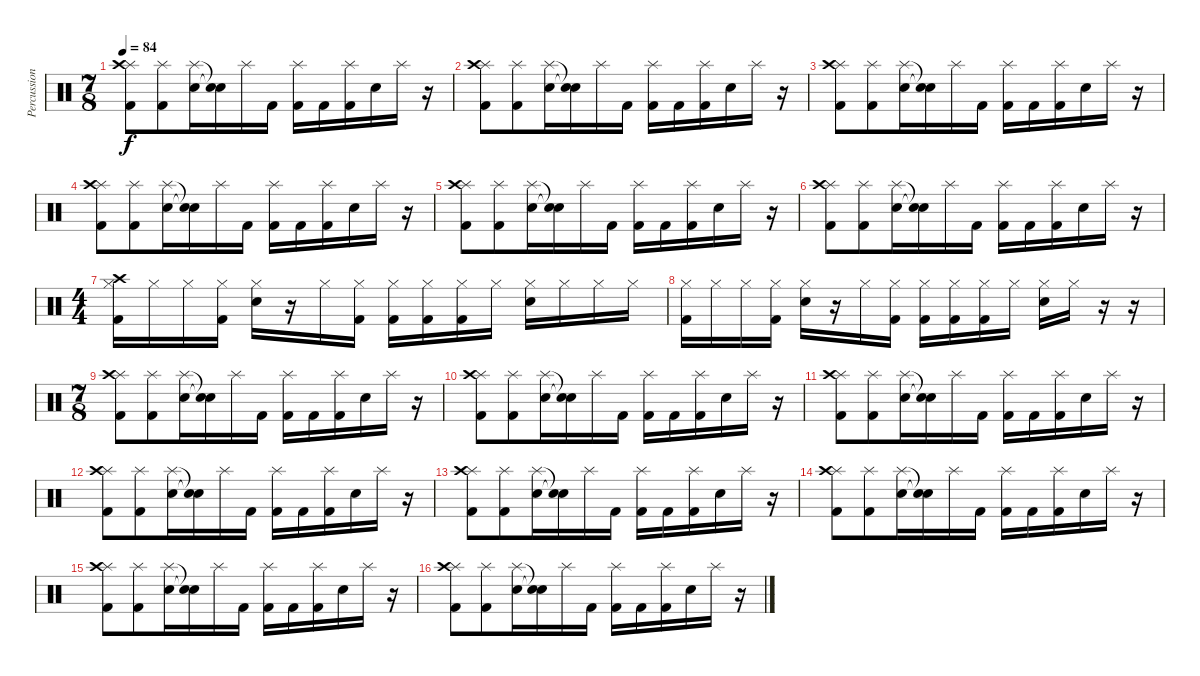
\track ("Percussions" "Percussion") {instrument percussion}
\staff {score}
\articulation defaults
\ts (7 8)
\tempo 84
\clef neutral
\ks c
("Splash (hit)" "Kick (hit) 2" "Crash high (hit)").8{dy f} ("Kick (hit) 2" "Splash (hit)").8 ("Electric Snare (hit)" "Splash (hit)").16 ("Snare (hit)"{t} "Snare (hit)"{t}).16 "Splash (hit)".16 "Kick (hit) 2".16 ("Kick (hit) 2" "Splash (hit)").16 "Kick (hit) 2".16 ("Kick (hit) 2" "Splash (hit)").16 "Electric Snare (hit)".16 "Splash (hit)".16 r.16 |
("Splash (hit)" "Kick (hit) 2" "Crash high (hit)").8 ("Kick (hit) 2" "Splash (hit)").8 ("Electric Snare (hit)" "Splash (hit)").16 ("Snare (hit)"{t} "Snare (hit)"{t}).16 "Splash (hit)".16 "Kick (hit) 2".16 ("Kick (hit) 2" "Splash (hit)").16 "Kick (hit) 2".16 ("Kick (hit) 2" "Splash (hit)").16 "Electric Snare (hit)".16 "Splash (hit)".16 r.16 |
("Splash (hit)" "Kick (hit) 2" "Crash high (hit)").8 ("Kick (hit) 2" "Splash (hit)").8 ("Electric Snare (hit)" "Splash (hit)").16 ("Snare (hit)"{t} "Snare (hit)"{t}).16 "Splash (hit)".16 "Kick (hit) 2".16 ("Kick (hit) 2" "Splash (hit)").16 "Kick (hit) 2".16 ("Kick (hit) 2" "Splash (hit)").16 "Electric Snare (hit)".16 "Splash (hit)".16 r.16 |
("Splash (hit)" "Kick (hit) 2" "Crash high (hit)").8 ("Kick (hit) 2" "Splash (hit)").8 ("Electric Snare (hit)" "Splash (hit)").16 ("Snare (hit)"{t} "Snare (hit)"{t}).16 "Splash (hit)".16 "Kick (hit) 2".16 ("Kick (hit) 2" "Splash (hit)").16 "Kick (hit) 2".16 ("Kick (hit) 2" "Splash (hit)").16 "Electric Snare (hit)".16 "Splash (hit)".16 r.16 |
("Splash (hit)" "Kick (hit) 2" "Crash high (hit)").8 ("Kick (hit) 2" "Splash (hit)").8 ("Electric Snare (hit)" "Splash (hit)").16 ("Snare (hit)"{t} "Snare (hit)"{t}).16 "Splash (hit)".16 "Kick (hit) 2".16 ("Kick (hit) 2" "Splash (hit)").16 "Kick (hit) 2".16 ("Kick (hit) 2" "Splash (hit)").16 "Electric Snare (hit)".16 "Splash (hit)".16 r.16 |
("Splash (hit)" "Kick (hit) 2" "Crash high (hit)").8 ("Kick (hit) 2" "Splash (hit)").8 ("Electric Snare (hit)" "Splash (hit)").16 ("Snare (hit)"{t} "Snare (hit)"{t}).16 "Splash (hit)".16 "Kick (hit) 2".16 ("Kick (hit) 2" "Splash (hit)").16 "Kick (hit) 2".16 ("Kick (hit) 2" "Splash (hit)").16 "Electric Snare (hit)".16 "Splash (hit)".16 r.16 |
\ts (4 4)
("Kick (hit) 2" "Hi-Hat (closed)" "Crash high (hit)").16 "Hi-Hat (closed)".16 "Hi-Hat (closed)".16 ("Kick (hit) 2" "Hi-Hat (closed)").16 ("Electric Snare (hit)" "Hi-Hat (closed)").16 r.16 "Hi-Hat (closed)".16 ("Kick (hit) 2" "Hi-Hat (closed)").16 ("Kick (hit) 2" "Hi-Hat (closed)").16 ("Kick (hit) 2" "Hi-Hat (closed)").16 ("Kick (hit) 2" "Hi-Hat (closed)").16 "Hi-Hat (closed)".16 ("Electric Snare (hit)" "Hi-Hat (closed)").16 "Hi-Hat (closed)".16 "Hi-Hat (closed)".16 "Hi-Hat (closed)".16 |
("Kick (hit) 2" "Hi-Hat (closed)").16 "Hi-Hat (closed)".16 "Hi-Hat (closed)".16 ("Kick (hit) 2" "Hi-Hat (closed)").16 ("Electric Snare (hit)" "Hi-Hat (closed)").16 r.16 "Hi-Hat (closed)".16 ("Kick (hit) 2" "Hi-Hat (closed)").16 ("Kick (hit) 2" "Hi-Hat (closed)").16 ("Kick (hit) 2" "Hi-Hat (closed)").16 ("Kick (hit) 2" "Hi-Hat (closed)").16 "Hi-Hat (closed)".16 ("Electric Snare (hit)" "Hi-Hat (closed)").16 "Hi-Hat (closed)".16 r.16 r.16 |
\ts (7 8)
("Splash (hit)" "Kick (hit) 2" "Crash high (hit)").8 ("Kick (hit) 2" "Splash (hit)").8 ("Electric Snare (hit)" "Splash (hit)").16 ("Snare (hit)"{t} "Snare (hit)"{t}).16 "Splash (hit)".16 "Kick (hit) 2".16 ("Kick (hit) 2" "Splash (hit)").16 "Kick (hit) 2".16 ("Kick (hit) 2" "Splash (hit)").16 "Electric Snare (hit)".16 "Splash (hit)".16 r.16 |
("Splash (hit)" "Kick (hit) 2" "Crash high (hit)").8 ("Kick (hit) 2" "Splash (hit)").8 ("Electric Snare (hit)" "Splash (hit)").16 ("Snare (hit)"{t} "Snare (hit)"{t}).16 "Splash (hit)".16 "Kick (hit) 2".16 ("Kick (hit) 2" "Splash (hit)").16 "Kick (hit) 2".16 ("Kick (hit) 2" "Splash (hit)").16 "Electric Snare (hit)".16 "Splash (hit)".16 r.16 |
("Splash (hit)" "Kick (hit) 2" "Crash high (hit)").8 ("Kick (hit) 2" "Splash (hit)").8 ("Electric Snare (hit)" "Splash (hit)").16 ("Snare (hit)"{t} "Snare (hit)"{t}).16 "Splash (hit)".16 "Kick (hit) 2".16 ("Kick (hit) 2" "Splash (hit)").16 "Kick (hit) 2".16 ("Kick (hit) 2" "Splash (hit)").16 "Electric Snare (hit)".16 "Splash (hit)".16 r.16 |
("Splash (hit)" "Kick (hit) 2" "Crash high (hit)").8 ("Kick (hit) 2" "Splash (hit)").8 ("Electric Snare (hit)" "Splash (hit)").16 ("Snare (hit)"{t} "Snare (hit)"{t}).16 "Splash (hit)".16 "Kick (hit) 2".16 ("Kick (hit) 2" "Splash (hit)").16 "Kick (hit) 2".16 ("Kick (hit) 2" "Splash (hit)").16 "Electric Snare (hit)".16 "Splash (hit)".16 r.16 |
("Splash (hit)" "Kick (hit) 2" "Crash high (hit)").8 ("Kick (hit) 2" "Splash (hit)").8 ("Electric Snare (hit)" "Splash (hit)").16 ("Snare (hit)"{t} "Snare (hit)"{t}).16 "Splash (hit)".16 "Kick (hit) 2".16 ("Kick (hit) 2" "Splash (hit)").16 "Kick (hit) 2".16 ("Kick (hit) 2" "Splash (hit)").16 "Electric Snare (hit)".16 "Splash (hit)".16 r.16 |
("Splash (hit)" "Kick (hit) 2" "Crash high (hit)").8 ("Kick (hit) 2" "Splash (hit)").8 ("Electric Snare (hit)" "Splash (hit)").16 ("Snare (hit)"{t} "Snare (hit)"{t}).16 "Splash (hit)".16 "Kick (hit) 2".16 ("Kick (hit) 2" "Splash (hit)").16 "Kick (hit) 2".16 ("Kick (hit) 2" "Splash (hit)").16 "Electric Snare (hit)".16 "Splash (hit)".16 r.16 |
("Splash (hit)" "Kick (hit) 2" "Crash high (hit)").8 ("Kick (hit) 2" "Splash (hit)").8 ("Electric Snare (hit)" "Splash (hit)").16 ("Snare (hit)"{t} "Snare (hit)"{t}).16 "Splash (hit)".16 "Kick (hit) 2".16 ("Kick (hit) 2" "Splash (hit)").16 "Kick (hit) 2".16 ("Kick (hit) 2" "Splash (hit)").16 "Electric Snare (hit)".16 "Splash (hit)".16 r.16 |
("Splash (hit)" "Kick (hit) 2" "Crash high (hit)").8 ("Kick (hit) 2" "Splash (hit)").8 ("Electric Snare (hit)" "Splash (hit)").16 ("Snare (hit)"{t} "Snare (hit)"{t}).16 "Splash (hit)".16 "Kick (hit) 2".16 ("Kick (hit) 2" "Splash (hit)").16 "Kick (hit) 2".16 ("Kick (hit) 2" "Splash (hit)").16 "Electric Snare (hit)".16 "Splash (hit)".16 r.16
